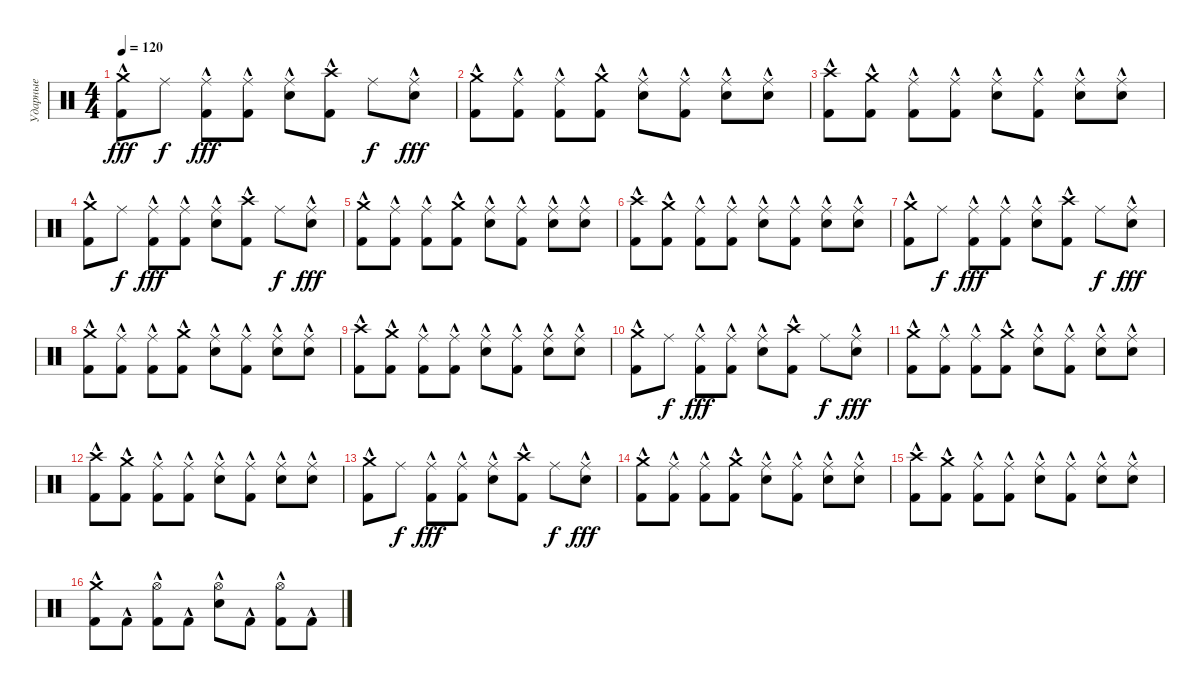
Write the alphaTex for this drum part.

\track ("Ударные" "Ударные") {instrument percussion}
\staff
\articulation defaults
\ts (4 4)
\tempo 120
\clef neutral
\ks c
("Crash medium (hit)" "Kick (hit) 2"{hac}).8{dy fff} "Ride (middle)".8{dy f} ("Ride (middle)" "Kick (hit) 2"{hac}).8{dy fff} ("Ride (middle)" "Kick (hit) 2"{hac}).8 ("Ride (middle)" "Snare (hit) 2"{hac}).8 ("Crash high (hit)" "Kick (hit) 2"{hac}).8 "Ride (middle)".8{dy f} ("Ride (middle)" "Snare (hit) 2"{hac}).8{dy fff} |
("Crash medium (hit)" "Kick (hit) 2"{hac}).8 ("Ride (middle)" "Kick (hit) 2"{hac}).8 ("Ride (middle)" "Kick (hit) 2"{hac}).8 ("Crash medium (hit)" "Kick (hit) 2"{hac}).8 ("Ride (middle)" "Snare (hit) 2"{hac}).8 ("Ride (middle)" "Kick (hit) 2"{hac}).8 ("Ride (middle)" "Snare (hit) 2"{hac}).8 ("Ride (middle)" "Snare (hit) 2"{hac}).8 |
("Crash high (hit)" "Kick (hit) 2"{hac}).8 ("Crash medium (hit)" "Kick (hit) 2"{hac}).8 ("Ride (middle)" "Kick (hit) 2"{hac}).8 ("Ride (middle)" "Kick (hit) 2"{hac}).8 ("Ride (middle)" "Snare (hit) 2"{hac}).8 ("Ride (middle)" "Kick (hit) 2"{hac}).8 ("Ride (middle)" "Snare (hit) 2"{hac}).8 ("Ride (middle)" "Snare (hit) 2"{hac}).8 |
("Crash medium (hit)" "Kick (hit) 2"{hac}).8 "Ride (middle)".8{dy f} ("Ride (middle)" "Kick (hit) 2"{hac}).8{dy fff} ("Ride (middle)" "Kick (hit) 2"{hac}).8 ("Ride (middle)" "Snare (hit) 2"{hac}).8 ("Crash high (hit)" "Kick (hit) 2"{hac}).8 "Ride (middle)".8{dy f} ("Ride (middle)" "Snare (hit) 2"{hac}).8{dy fff} |
("Crash medium (hit)" "Kick (hit) 2"{hac}).8 ("Ride (middle)" "Kick (hit) 2"{hac}).8 ("Ride (middle)" "Kick (hit) 2"{hac}).8 ("Crash medium (hit)" "Kick (hit) 2"{hac}).8 ("Ride (middle)" "Snare (hit) 2"{hac}).8 ("Ride (middle)" "Kick (hit) 2"{hac}).8 ("Ride (middle)" "Snare (hit) 2"{hac}).8 ("Ride (middle)" "Snare (hit) 2"{hac}).8 |
("Crash high (hit)" "Kick (hit) 2"{hac}).8 ("Crash medium (hit)" "Kick (hit) 2"{hac}).8 ("Ride (middle)" "Kick (hit) 2"{hac}).8 ("Ride (middle)" "Kick (hit) 2"{hac}).8 ("Ride (middle)" "Snare (hit) 2"{hac}).8 ("Ride (middle)" "Kick (hit) 2"{hac}).8 ("Ride (middle)" "Snare (hit) 2"{hac}).8 ("Ride (middle)" "Snare (hit) 2"{hac}).8 |
("Crash medium (hit)" "Kick (hit) 2"{hac}).8 "Ride (middle)".8{dy f} ("Ride (middle)" "Kick (hit) 2"{hac}).8{dy fff} ("Ride (middle)" "Kick (hit) 2"{hac}).8 ("Ride (middle)" "Snare (hit) 2"{hac}).8 ("Crash high (hit)" "Kick (hit) 2"{hac}).8 "Ride (middle)".8{dy f} ("Ride (middle)" "Snare (hit) 2"{hac}).8{dy fff} |
("Crash medium (hit)" "Kick (hit) 2"{hac}).8 ("Ride (middle)" "Kick (hit) 2"{hac}).8 ("Ride (middle)" "Kick (hit) 2"{hac}).8 ("Crash medium (hit)" "Kick (hit) 2"{hac}).8 ("Ride (middle)" "Snare (hit) 2"{hac}).8 ("Ride (middle)" "Kick (hit) 2"{hac}).8 ("Ride (middle)" "Snare (hit) 2"{hac}).8 ("Ride (middle)" "Snare (hit) 2"{hac}).8 |
("Crash high (hit)" "Kick (hit) 2"{hac}).8 ("Crash medium (hit)" "Kick (hit) 2"{hac}).8 ("Ride (middle)" "Kick (hit) 2"{hac}).8 ("Ride (middle)" "Kick (hit) 2"{hac}).8 ("Ride (middle)" "Snare (hit) 2"{hac}).8 ("Ride (middle)" "Kick (hit) 2"{hac}).8 ("Ride (middle)" "Snare (hit) 2"{hac}).8 ("Ride (middle)" "Snare (hit) 2"{hac}).8 |
("Crash medium (hit)" "Kick (hit) 2"{hac}).8 "Ride (middle)".8{dy f} ("Ride (middle)" "Kick (hit) 2"{hac}).8{dy fff} ("Ride (middle)" "Kick (hit) 2"{hac}).8 ("Ride (middle)" "Snare (hit) 2"{hac}).8 ("Crash high (hit)" "Kick (hit) 2"{hac}).8 "Ride (middle)".8{dy f} ("Ride (middle)" "Snare (hit) 2"{hac}).8{dy fff} |
("Crash medium (hit)" "Kick (hit) 2"{hac}).8 ("Ride (middle)" "Kick (hit) 2"{hac}).8 ("Ride (middle)" "Kick (hit) 2"{hac}).8 ("Crash medium (hit)" "Kick (hit) 2"{hac}).8 ("Ride (middle)" "Snare (hit) 2"{hac}).8 ("Ride (middle)" "Kick (hit) 2"{hac}).8 ("Ride (middle)" "Snare (hit) 2"{hac}).8 ("Ride (middle)" "Snare (hit) 2"{hac}).8 |
("Crash high (hit)" "Kick (hit) 2"{hac}).8 ("Crash medium (hit)" "Kick (hit) 2"{hac}).8 ("Ride (middle)" "Kick (hit) 2"{hac}).8 ("Ride (middle)" "Kick (hit) 2"{hac}).8 ("Ride (middle)" "Snare (hit) 2"{hac}).8 ("Ride (middle)" "Kick (hit) 2"{hac}).8 ("Ride (middle)" "Snare (hit) 2"{hac}).8 ("Ride (middle)" "Snare (hit) 2"{hac}).8 |
("Crash medium (hit)" "Kick (hit) 2"{hac}).8 "Ride (middle)".8{dy f} ("Ride (middle)" "Kick (hit) 2"{hac}).8{dy fff} ("Ride (middle)" "Kick (hit) 2"{hac}).8 ("Ride (middle)" "Snare (hit) 2"{hac}).8 ("Crash high (hit)" "Kick (hit) 2"{hac}).8 "Ride (middle)".8{dy f} ("Ride (middle)" "Snare (hit) 2"{hac}).8{dy fff} |
("Crash medium (hit)" "Kick (hit) 2"{hac}).8 ("Ride (middle)" "Kick (hit) 2"{hac}).8 ("Ride (middle)" "Kick (hit) 2"{hac}).8 ("Crash medium (hit)" "Kick (hit) 2"{hac}).8 ("Ride (middle)" "Snare (hit) 2"{hac}).8 ("Ride (middle)" "Kick (hit) 2"{hac}).8 ("Ride (middle)" "Snare (hit) 2"{hac}).8 ("Ride (middle)" "Snare (hit) 2"{hac}).8 |
("Crash high (hit)" "Kick (hit) 2"{hac}).8 ("Crash medium (hit)" "Kick (hit) 2"{hac}).8 ("Ride (middle)" "Kick (hit) 2"{hac}).8 ("Ride (middle)" "Kick (hit) 2"{hac}).8 ("Ride (middle)" "Snare (hit) 2"{hac}).8 ("Ride (middle)" "Kick (hit) 2"{hac}).8 ("Ride (middle)" "Snare (hit) 2"{hac}).8 ("Ride (middle)" "Snare (hit) 2"{hac}).8 |
("Crash medium (hit)" "Kick (hit) 2"{hac}).8 "Kick (hit) 2"{hac}.8 ("Hi-Hat (open)" "Kick (hit) 2"{hac}).8 "Kick (hit) 2"{hac}.8 ("Hi-Hat (open)" "Snare (hit) 2"{hac}).8 "Kick (hit) 2"{hac}.8 ("Hi-Hat (open)" "Kick (hit) 2"{hac}).8 "Kick (hit) 2"{hac}.8
